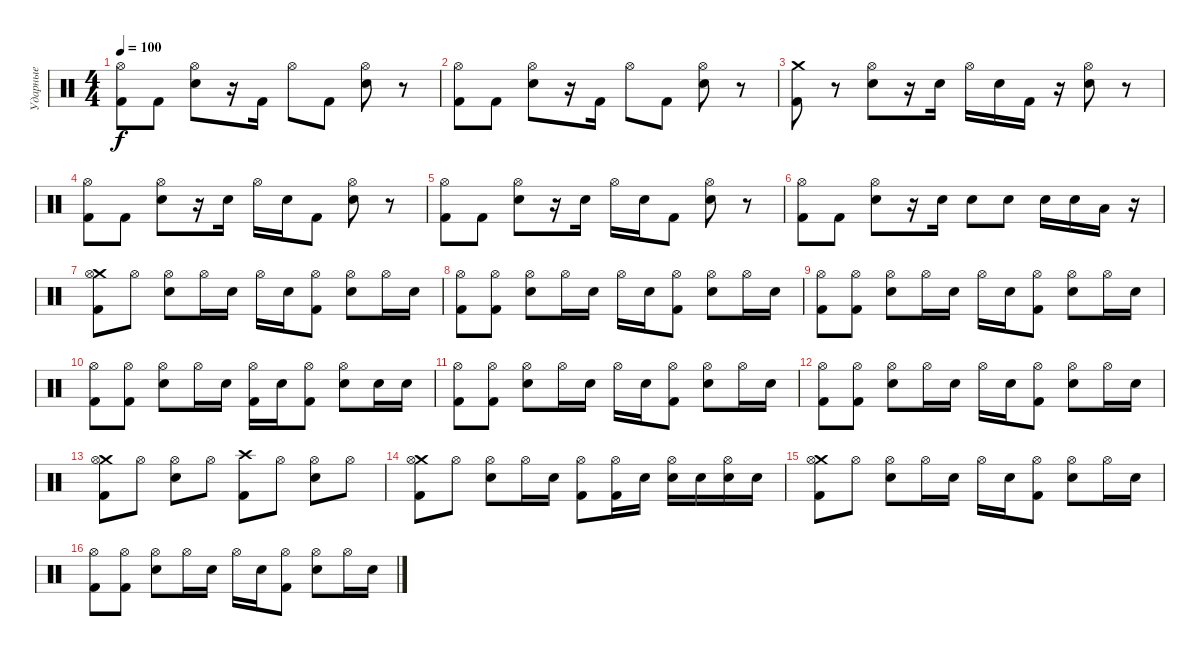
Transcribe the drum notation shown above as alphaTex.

\track ("Ударные" "Ударные") {instrument percussion}
\staff {score}
\articulation defaults
\ts (4 4)
\tempo 100
\clef neutral
\ks c
("Hi-Hat (open)" "Kick (hit) 2").8{dy f} "Kick (hit) 2".8 ("Hi-Hat (open)" "Electric Snare (hit)").8 r.16 "Kick (hit) 2".16 "Hi-Hat (open)".8 "Kick (hit) 2".8 ("Hi-Hat (open)" "Electric Snare (hit)").8 r.8 |
("Hi-Hat (open)" "Kick (hit) 2").8 "Kick (hit) 2".8 ("Hi-Hat (open)" "Electric Snare (hit)").8 r.16 "Kick (hit) 2".16 "Hi-Hat (open)".8 "Kick (hit) 2".8 ("Hi-Hat (open)" "Electric Snare (hit)").8 r.8 |
("Crash medium (hit)" "Kick (hit) 2").8 r.8 ("Hi-Hat (open)" "Electric Snare (hit)").8 r.16 "Electric Snare (hit)".16 "Hi-Hat (open)".16 "Electric Snare (hit)".16 "Kick (hit) 2".16 r.16 ("Hi-Hat (open)" "Electric Snare (hit)").8 r.8 |
("Hi-Hat (open)" "Kick (hit) 2").8 "Kick (hit) 2".8 ("Hi-Hat (open)" "Electric Snare (hit)").8 r.16 "Electric Snare (hit)".16 "Hi-Hat (open)".16 "Electric Snare (hit)".16 "Kick (hit) 2".8 ("Hi-Hat (open)" "Electric Snare (hit)").8 r.8 |
("Hi-Hat (open)" "Kick (hit) 2").8 "Kick (hit) 2".8 ("Hi-Hat (open)" "Electric Snare (hit)").8 r.16 "Electric Snare (hit)".16 "Hi-Hat (open)".16 "Electric Snare (hit)".16 "Kick (hit) 2".8 ("Hi-Hat (open)" "Electric Snare (hit)").8 r.8 |
("Hi-Hat (open)" "Kick (hit) 2").8 "Kick (hit) 2".8 ("Hi-Hat (open)" "Electric Snare (hit)").8 r.16 "Electric Snare (hit)".16 "Electric Snare (hit)".8 "Electric Snare (hit)".8 "Electric Snare (hit)".16 "Electric Snare (hit)".16 "Low Floor Tom (hit)".16 r.16 |
("Crash medium (hit)" "Hi-Hat (open)" "Kick (hit) 2").8 "Hi-Hat (open)".8 ("Hi-Hat (open)" "Electric Snare (hit)").8 "Hi-Hat (open)".16 "Electric Snare (hit)".16 "Hi-Hat (open)".16 "Electric Snare (hit)".16 ("Hi-Hat (open)" "Kick (hit) 2").8 ("Hi-Hat (open)" "Electric Snare (hit)").8 "Hi-Hat (open)".16 "Electric Snare (hit)".16 |
("Hi-Hat (open)" "Kick (hit) 2").8 ("Hi-Hat (open)" "Kick (hit) 2").8 ("Hi-Hat (open)" "Electric Snare (hit)").8 "Hi-Hat (open)".16 "Electric Snare (hit)".16 "Hi-Hat (open)".16 "Electric Snare (hit)".16 ("Hi-Hat (open)" "Kick (hit) 2").8 ("Hi-Hat (open)" "Electric Snare (hit)").8 "Hi-Hat (open)".16 "Electric Snare (hit)".16 |
("Hi-Hat (open)" "Kick (hit) 2").8 ("Hi-Hat (open)" "Kick (hit) 2").8 ("Hi-Hat (open)" "Electric Snare (hit)").8 "Hi-Hat (open)".16 "Electric Snare (hit)".16 "Hi-Hat (open)".16 "Electric Snare (hit)".16 ("Hi-Hat (open)" "Kick (hit) 2").8 ("Hi-Hat (open)" "Electric Snare (hit)").8 "Hi-Hat (open)".16 "Electric Snare (hit)".16 |
("Hi-Hat (open)" "Kick (hit) 2").8 ("Hi-Hat (open)" "Kick (hit) 2").8 ("Hi-Hat (open)" "Electric Snare (hit)").8 "Hi-Hat (open)".16 "Electric Snare (hit)".16 ("Hi-Hat (open)" "Kick (hit) 2").16 "Electric Snare (hit)".16 ("Hi-Hat (open)" "Kick (hit) 2").8 ("Hi-Hat (open)" "Electric Snare (hit)").8 "Electric Snare (hit)".16 "Electric Snare (hit)".16 |
("Hi-Hat (open)" "Kick (hit) 2").8 ("Hi-Hat (open)" "Kick (hit) 2").8 ("Hi-Hat (open)" "Electric Snare (hit)").8 "Hi-Hat (open)".16 "Electric Snare (hit)".16 "Hi-Hat (open)".16 "Electric Snare (hit)".16 ("Hi-Hat (open)" "Kick (hit) 2").8 ("Hi-Hat (open)" "Electric Snare (hit)").8 "Hi-Hat (open)".16 "Electric Snare (hit)".16 |
("Hi-Hat (open)" "Kick (hit) 2").8 ("Hi-Hat (open)" "Kick (hit) 2").8 ("Hi-Hat (open)" "Electric Snare (hit)").8 "Hi-Hat (open)".16 "Electric Snare (hit)".16 "Hi-Hat (open)".16 "Electric Snare (hit)".16 ("Hi-Hat (open)" "Kick (hit) 2").8 ("Hi-Hat (open)" "Electric Snare (hit)").8 "Hi-Hat (open)".16 "Electric Snare (hit)".16 |
("Crash medium (hit)" "Hi-Hat (open)" "Kick (hit) 2").8 "Hi-Hat (open)".8 ("Hi-Hat (open)" "Electric Snare (hit)").8 "Hi-Hat (open)".8 ("Crash high (hit)" "Kick (hit) 2").8 "Hi-Hat (open)".8 ("Hi-Hat (open)" "Electric Snare (hit)").8 "Hi-Hat (open)".8 |
("Crash medium (hit)" "Hi-Hat (open)" "Kick (hit) 2").8 "Hi-Hat (open)".8 ("Hi-Hat (open)" "Electric Snare (hit)").8 "Hi-Hat (open)".16 "Electric Snare (hit)".16 ("Hi-Hat (open)" "Kick (hit) 2").8 ("Hi-Hat (open)" "Kick (hit) 2").16 "Electric Snare (hit)".16 ("Hi-Hat (open)" "Electric Snare (hit)").16 "Electric Snare (hit)".16 ("Hi-Hat (open)" "Electric Snare (hit)").16 "Electric Snare (hit)".16 |
("Crash medium (hit)" "Hi-Hat (open)" "Kick (hit) 2").8 "Hi-Hat (open)".8 ("Hi-Hat (open)" "Electric Snare (hit)").8 "Hi-Hat (open)".16 "Electric Snare (hit)".16 "Hi-Hat (open)".16 "Electric Snare (hit)".16 ("Hi-Hat (open)" "Kick (hit) 2").8 ("Hi-Hat (open)" "Electric Snare (hit)").8 "Hi-Hat (open)".16 "Electric Snare (hit)".16 |
("Hi-Hat (open)" "Kick (hit) 2").8 ("Hi-Hat (open)" "Kick (hit) 2").8 ("Hi-Hat (open)" "Electric Snare (hit)").8 "Hi-Hat (open)".16 "Electric Snare (hit)".16 "Hi-Hat (open)".16 "Electric Snare (hit)".16 ("Hi-Hat (open)" "Kick (hit) 2").8 ("Hi-Hat (open)" "Electric Snare (hit)").8 "Hi-Hat (open)".16 "Electric Snare (hit)".16
